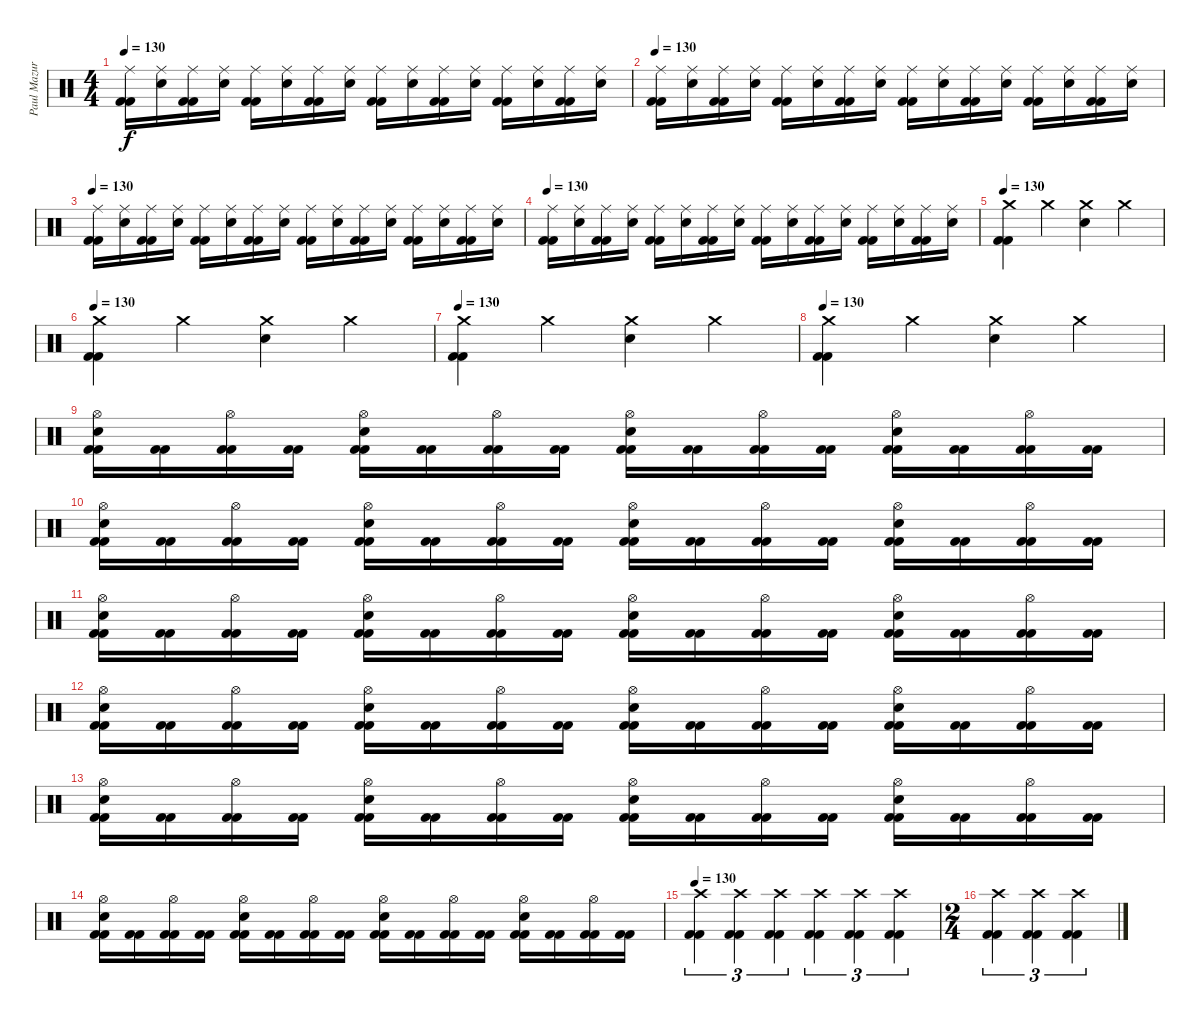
\track ("Paul Mazurkiewicz" "Paul Mazur") {instrument percussion}
\staff {score}
\articulation defaults
\ts (4 4)
\tempo 130
\clef neutral
\ks c
("Kick (hit) 2" "Ride (middle)" "Kick (hit) 2").16{dy f} ("Ride (middle)" "Snare (hit) 2").16 ("Kick (hit) 2" "Ride (middle)" "Kick (hit) 2").16 ("Ride (middle)" "Snare (hit) 2").16 ("Kick (hit) 2" "Ride (middle)" "Kick (hit) 2").16 ("Ride (middle)" "Snare (hit) 2").16 ("Kick (hit) 2" "Ride (middle)" "Kick (hit) 2").16 ("Ride (middle)" "Snare (hit) 2").16 ("Kick (hit) 2" "Ride (middle)" "Kick (hit) 2").16 ("Ride (middle)" "Snare (hit) 2").16 ("Kick (hit) 2" "Ride (middle)" "Kick (hit) 2").16 ("Ride (middle)" "Snare (hit) 2").16 ("Kick (hit) 2" "Ride (middle)" "Kick (hit) 2").16 ("Ride (middle)" "Snare (hit) 2").16 ("Kick (hit) 2" "Ride (middle)" "Kick (hit) 2").16 ("Ride (middle)" "Snare (hit) 2").16 |
\tempo 130
("Kick (hit) 2" "Ride (middle)" "Kick (hit) 2").16 ("Ride (middle)" "Snare (hit) 2").16 ("Kick (hit) 2" "Ride (middle)" "Kick (hit) 2").16 ("Ride (middle)" "Snare (hit) 2").16 ("Kick (hit) 2" "Ride (middle)" "Kick (hit) 2").16 ("Ride (middle)" "Snare (hit) 2").16 ("Kick (hit) 2" "Ride (middle)" "Kick (hit) 2").16 ("Ride (middle)" "Snare (hit) 2").16 ("Kick (hit) 2" "Ride (middle)" "Kick (hit) 2").16 ("Ride (middle)" "Snare (hit) 2").16 ("Kick (hit) 2" "Ride (middle)" "Kick (hit) 2").16 ("Ride (middle)" "Snare (hit) 2").16 ("Kick (hit) 2" "Ride (middle)" "Kick (hit) 2").16 ("Ride (middle)" "Snare (hit) 2").16 ("Kick (hit) 2" "Ride (middle)" "Kick (hit) 2").16 ("Ride (middle)" "Snare (hit) 2").16 |
\tempo 130
("Kick (hit) 2" "Ride (middle)" "Kick (hit) 2").16 ("Ride (middle)" "Snare (hit) 2").16 ("Kick (hit) 2" "Ride (middle)" "Kick (hit) 2").16 ("Ride (middle)" "Snare (hit) 2").16 ("Kick (hit) 2" "Ride (middle)" "Kick (hit) 2").16 ("Ride (middle)" "Snare (hit) 2").16 ("Kick (hit) 2" "Ride (middle)" "Kick (hit) 2").16 ("Ride (middle)" "Snare (hit) 2").16 ("Kick (hit) 2" "Ride (middle)" "Kick (hit) 2").16 ("Ride (middle)" "Snare (hit) 2").16 ("Kick (hit) 2" "Ride (middle)" "Kick (hit) 2").16 ("Ride (middle)" "Snare (hit) 2").16 ("Kick (hit) 2" "Ride (middle)" "Kick (hit) 2").16 ("Ride (middle)" "Snare (hit) 2").16 ("Kick (hit) 2" "Ride (middle)" "Kick (hit) 2").16 ("Ride (middle)" "Snare (hit) 2").16 |
\tempo 130
("Kick (hit) 2" "Ride (middle)" "Kick (hit) 2").16 ("Ride (middle)" "Snare (hit) 2").16 ("Kick (hit) 2" "Ride (middle)" "Kick (hit) 2").16 ("Ride (middle)" "Snare (hit) 2").16 ("Kick (hit) 2" "Ride (middle)" "Kick (hit) 2").16 ("Ride (middle)" "Snare (hit) 2").16 ("Kick (hit) 2" "Ride (middle)" "Kick (hit) 2").16 ("Ride (middle)" "Snare (hit) 2").16 ("Kick (hit) 2" "Ride (middle)" "Kick (hit) 2").16 ("Ride (middle)" "Snare (hit) 2").16 ("Kick (hit) 2" "Ride (middle)" "Kick (hit) 2").16 ("Ride (middle)" "Snare (hit) 2").16 ("Kick (hit) 2" "Ride (middle)" "Kick (hit) 2").16 ("Ride (middle)" "Snare (hit) 2").16 ("Kick (hit) 2" "Ride (middle)" "Kick (hit) 2").16 ("Ride (middle)" "Snare (hit) 2").16 |
\tempo 130
("Crash medium (hit)" "Kick (hit) 2" "Kick (hit) 2").4 "Crash medium (hit)".4 ("Crash medium (hit)" "Snare (hit) 2").4 "Crash medium (hit)".4 |
\tempo 130
("Crash medium (hit)" "Kick (hit) 2" "Kick (hit) 2").4 "Crash medium (hit)".4 ("Crash medium (hit)" "Snare (hit) 2").4 "Crash medium (hit)".4 |
\tempo 130
("Crash medium (hit)" "Kick (hit) 2" "Kick (hit) 2").4 "Crash medium (hit)".4 ("Crash medium (hit)" "Snare (hit) 2").4 "Crash medium (hit)".4 |
\tempo 130
("Crash medium (hit)" "Kick (hit) 2" "Kick (hit) 2").4 "Crash medium (hit)".4 ("Crash medium (hit)" "Snare (hit) 2").4 "Crash medium (hit)".4 |
("Kick (hit) 2" "Hi-Hat (open)" "Snare (hit) 2" "Kick (hit) 2").16 ("Kick (hit) 2" "Kick (hit) 2").16 ("Kick (hit) 2" "Hi-Hat (open)" "Kick (hit) 2").16 ("Kick (hit) 2" "Kick (hit) 2").16 ("Kick (hit) 2" "Hi-Hat (open)" "Snare (hit) 2" "Kick (hit) 2").16 ("Kick (hit) 2" "Kick (hit) 2").16 ("Kick (hit) 2" "Hi-Hat (open)" "Kick (hit) 2").16 ("Kick (hit) 2" "Kick (hit) 2").16 ("Kick (hit) 2" "Hi-Hat (open)" "Snare (hit) 2" "Kick (hit) 2").16 ("Kick (hit) 2" "Kick (hit) 2").16 ("Kick (hit) 2" "Hi-Hat (open)" "Kick (hit) 2").16 ("Kick (hit) 2" "Kick (hit) 2").16 ("Kick (hit) 2" "Hi-Hat (open)" "Snare (hit) 2" "Kick (hit) 2").16 ("Kick (hit) 2" "Kick (hit) 2").16 ("Kick (hit) 2" "Hi-Hat (open)" "Kick (hit) 2").16 ("Kick (hit) 2" "Kick (hit) 2").16 |
("Kick (hit) 2" "Hi-Hat (open)" "Snare (hit) 2" "Kick (hit) 2").16 ("Kick (hit) 2" "Kick (hit) 2").16 ("Kick (hit) 2" "Hi-Hat (open)" "Kick (hit) 2").16 ("Kick (hit) 2" "Kick (hit) 2").16 ("Kick (hit) 2" "Hi-Hat (open)" "Snare (hit) 2" "Kick (hit) 2").16 ("Kick (hit) 2" "Kick (hit) 2").16 ("Kick (hit) 2" "Hi-Hat (open)" "Kick (hit) 2").16 ("Kick (hit) 2" "Kick (hit) 2").16 ("Kick (hit) 2" "Hi-Hat (open)" "Snare (hit) 2" "Kick (hit) 2").16 ("Kick (hit) 2" "Kick (hit) 2").16 ("Kick (hit) 2" "Hi-Hat (open)" "Kick (hit) 2").16 ("Kick (hit) 2" "Kick (hit) 2").16 ("Kick (hit) 2" "Hi-Hat (open)" "Snare (hit) 2" "Kick (hit) 2").16 ("Kick (hit) 2" "Kick (hit) 2").16 ("Kick (hit) 2" "Hi-Hat (open)" "Kick (hit) 2").16 ("Kick (hit) 2" "Kick (hit) 2").16 |
("Kick (hit) 2" "Hi-Hat (open)" "Snare (hit) 2" "Kick (hit) 2").16 ("Kick (hit) 2" "Kick (hit) 2").16 ("Kick (hit) 2" "Hi-Hat (open)" "Kick (hit) 2").16 ("Kick (hit) 2" "Kick (hit) 2").16 ("Kick (hit) 2" "Hi-Hat (open)" "Snare (hit) 2" "Kick (hit) 2").16 ("Kick (hit) 2" "Kick (hit) 2").16 ("Kick (hit) 2" "Hi-Hat (open)" "Kick (hit) 2").16 ("Kick (hit) 2" "Kick (hit) 2").16 ("Kick (hit) 2" "Hi-Hat (open)" "Snare (hit) 2" "Kick (hit) 2").16 ("Kick (hit) 2" "Kick (hit) 2").16 ("Kick (hit) 2" "Hi-Hat (open)" "Kick (hit) 2").16 ("Kick (hit) 2" "Kick (hit) 2").16 ("Kick (hit) 2" "Hi-Hat (open)" "Snare (hit) 2" "Kick (hit) 2").16 ("Kick (hit) 2" "Kick (hit) 2").16 ("Kick (hit) 2" "Hi-Hat (open)" "Kick (hit) 2").16 ("Kick (hit) 2" "Kick (hit) 2").16 |
("Kick (hit) 2" "Hi-Hat (open)" "Snare (hit) 2" "Kick (hit) 2").16 ("Kick (hit) 2" "Kick (hit) 2").16 ("Kick (hit) 2" "Hi-Hat (open)" "Kick (hit) 2").16 ("Kick (hit) 2" "Kick (hit) 2").16 ("Kick (hit) 2" "Hi-Hat (open)" "Snare (hit) 2" "Kick (hit) 2").16 ("Kick (hit) 2" "Kick (hit) 2").16 ("Kick (hit) 2" "Hi-Hat (open)" "Kick (hit) 2").16 ("Kick (hit) 2" "Kick (hit) 2").16 ("Kick (hit) 2" "Hi-Hat (open)" "Snare (hit) 2" "Kick (hit) 2").16 ("Kick (hit) 2" "Kick (hit) 2").16 ("Kick (hit) 2" "Hi-Hat (open)" "Kick (hit) 2").16 ("Kick (hit) 2" "Kick (hit) 2").16 ("Kick (hit) 2" "Hi-Hat (open)" "Snare (hit) 2" "Kick (hit) 2").16 ("Kick (hit) 2" "Kick (hit) 2").16 ("Kick (hit) 2" "Hi-Hat (open)" "Kick (hit) 2").16 ("Kick (hit) 2" "Kick (hit) 2").16 |
("Kick (hit) 2" "Hi-Hat (open)" "Snare (hit) 2" "Kick (hit) 2").16 ("Kick (hit) 2" "Kick (hit) 2").16 ("Kick (hit) 2" "Hi-Hat (open)" "Kick (hit) 2").16 ("Kick (hit) 2" "Kick (hit) 2").16 ("Kick (hit) 2" "Hi-Hat (open)" "Snare (hit) 2" "Kick (hit) 2").16 ("Kick (hit) 2" "Kick (hit) 2").16 ("Kick (hit) 2" "Hi-Hat (open)" "Kick (hit) 2").16 ("Kick (hit) 2" "Kick (hit) 2").16 ("Kick (hit) 2" "Hi-Hat (open)" "Snare (hit) 2" "Kick (hit) 2").16 ("Kick (hit) 2" "Kick (hit) 2").16 ("Kick (hit) 2" "Hi-Hat (open)" "Kick (hit) 2").16 ("Kick (hit) 2" "Kick (hit) 2").16 ("Kick (hit) 2" "Hi-Hat (open)" "Snare (hit) 2" "Kick (hit) 2").16 ("Kick (hit) 2" "Kick (hit) 2").16 ("Kick (hit) 2" "Hi-Hat (open)" "Kick (hit) 2").16 ("Kick (hit) 2" "Kick (hit) 2").16 |
("Kick (hit) 2" "Hi-Hat (open)" "Snare (hit) 2" "Kick (hit) 2").16 ("Kick (hit) 2" "Kick (hit) 2").16 ("Kick (hit) 2" "Hi-Hat (open)" "Kick (hit) 2").16 ("Kick (hit) 2" "Kick (hit) 2").16 ("Kick (hit) 2" "Hi-Hat (open)" "Snare (hit) 2" "Kick (hit) 2").16 ("Kick (hit) 2" "Kick (hit) 2").16 ("Kick (hit) 2" "Hi-Hat (open)" "Kick (hit) 2").16 ("Kick (hit) 2" "Kick (hit) 2").16 ("Kick (hit) 2" "Hi-Hat (open)" "Snare (hit) 2" "Kick (hit) 2").16 ("Kick (hit) 2" "Kick (hit) 2").16 ("Kick (hit) 2" "Hi-Hat (open)" "Kick (hit) 2").16 ("Kick (hit) 2" "Kick (hit) 2").16 ("Kick (hit) 2" "Hi-Hat (open)" "Snare (hit) 2" "Kick (hit) 2").16 ("Kick (hit) 2" "Kick (hit) 2").16 ("Kick (hit) 2" "Hi-Hat (open)" "Kick (hit) 2").16 ("Kick (hit) 2" "Kick (hit) 2").16 |
\tempo 130
("Crash high (hit)" "Kick (hit) 2" "Kick (hit) 2").4{tu (3 2)} ("Crash high (hit)" "Kick (hit) 2" "Kick (hit) 2").4{tu (3 2)} ("Crash high (hit)" "Kick (hit) 2" "Kick (hit) 2").4{tu (3 2)} ("Crash high (hit)" "Kick (hit) 2" "Kick (hit) 2").4{tu (3 2)} ("Crash high (hit)" "Kick (hit) 2" "Kick (hit) 2").4{tu (3 2)} ("Crash high (hit)" "Kick (hit) 2" "Kick (hit) 2").4{tu (3 2)} |
\ts (2 4)
("Crash high (hit)" "Kick (hit) 2" "Kick (hit) 2").4{tu (3 2)} ("Crash high (hit)" "Kick (hit) 2" "Kick (hit) 2").4{tu (3 2)} ("Crash high (hit)" "Kick (hit) 2" "Kick (hit) 2").4{tu (3 2)}
